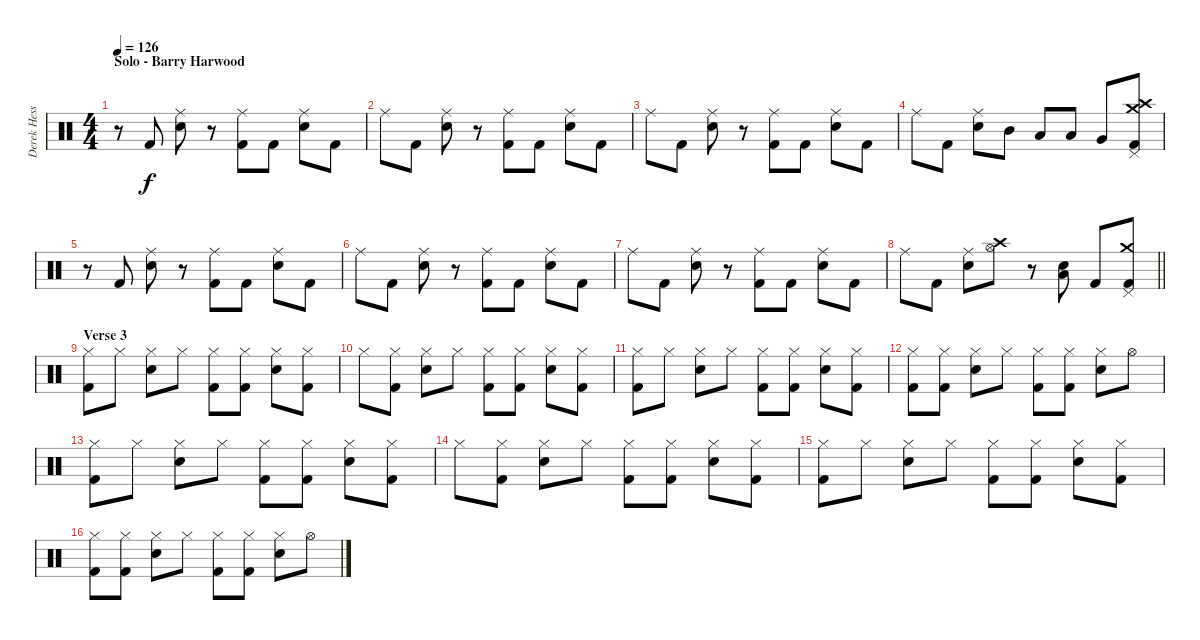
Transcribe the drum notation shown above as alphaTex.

\track ("Derek Hess (Drums and Percussion)" "Derek Hess") {instrument percussion}
\staff {score}
\articulation defaults
\ts (4 4)
\section ("" "Solo - Barry Harwood")
\tempo 126
\clef neutral
\ks c
r.8{dy f} "Kick (hit) 2".8 ("Ride (middle)" "Electric Snare (hit)").8 r.8 ("Ride (middle)" "Kick (hit) 2").8 "Kick (hit) 2".8 ("Ride (middle)" "Electric Snare (hit)").8 "Kick (hit) 2".8 |
"Ride (middle)".8 "Kick (hit) 2".8 ("Ride (middle)" "Electric Snare (hit)").8 r.8 ("Ride (middle)" "Kick (hit) 2").8 "Kick (hit) 2".8 ("Ride (middle)" "Electric Snare (hit)").8 "Kick (hit) 2".8 |
"Ride (middle)".8 "Kick (hit) 2".8 ("Ride (middle)" "Electric Snare (hit)").8 r.8 ("Ride (middle)" "Kick (hit) 2").8 "Kick (hit) 2".8 ("Ride (middle)" "Electric Snare (hit)").8 "Kick (hit) 2".8 |
"Ride (middle)".8 "Kick (hit) 2".8 ("Ride (middle)" "Electric Snare (hit)").8 "Mid Tom (hit)".8 "Low Tom (hit)".8 "Low Tom (hit)".8 "Very Low Tom (hit)".8 ("Crash medium (hit)" "Crash high (hit)" "Pedal Hi-Hat (hit)" "Kick (hit) 2").8 |
r.8 "Kick (hit) 2".8 ("Ride (middle)" "Electric Snare (hit)").8 r.8 ("Ride (middle)" "Kick (hit) 2").8 "Kick (hit) 2".8 ("Ride (middle)" "Electric Snare (hit)").8 "Kick (hit) 2".8 |
"Ride (middle)".8 "Kick (hit) 2".8 ("Ride (middle)" "Electric Snare (hit)").8 r.8 ("Ride (middle)" "Kick (hit) 2").8 "Kick (hit) 2".8 ("Ride (middle)" "Electric Snare (hit)").8 "Kick (hit) 2".8 |
"Ride (middle)".8 "Kick (hit) 2".8 ("Ride (middle)" "Electric Snare (hit)").8 r.8 ("Ride (middle)" "Kick (hit) 2").8 "Kick (hit) 2".8 ("Ride (middle)" "Electric Snare (hit)").8 "Kick (hit) 2".8 |
\barLineRight lightlight "Ride (middle)".8 "Kick (hit) 2".8
("Ride (middle)" "Electric Snare (hit)").8 ("Crash high (hit)" "Hi-Hat (open)").8 r.8 ("Electric Snare (hit)" "Low Tom (hit)").8 "Kick (hit) 2".8 ("Crash medium (hit)" "Pedal Hi-Hat (hit)" "Kick (hit) 2").8 |
\section ("" "Verse 3")
("Hi-Hat (closed)" "Kick (hit) 2").8 "Hi-Hat (closed)".8 ("Electric Snare (hit)" "Hi-Hat (closed)").8 "Hi-Hat (closed)".8 ("Hi-Hat (closed)" "Kick (hit) 2").8 ("Hi-Hat (closed)" "Kick (hit) 2").8 ("Electric Snare (hit)" "Hi-Hat (closed)").8 ("Hi-Hat (closed)" "Kick (hit) 2").8 |
"Hi-Hat (closed)".8 ("Hi-Hat (closed)" "Kick (hit) 2").8 ("Electric Snare (hit)" "Hi-Hat (closed)").8 "Hi-Hat (closed)".8 ("Hi-Hat (closed)" "Kick (hit) 2").8 ("Hi-Hat (closed)" "Kick (hit) 2").8 ("Electric Snare (hit)" "Hi-Hat (closed)").8 ("Hi-Hat (closed)" "Kick (hit) 2").8 |
("Hi-Hat (closed)" "Kick (hit) 2").8 "Hi-Hat (closed)".8 ("Electric Snare (hit)" "Hi-Hat (closed)").8 "Hi-Hat (closed)".8 ("Hi-Hat (closed)" "Kick (hit) 2").8 ("Hi-Hat (closed)" "Kick (hit) 2").8 ("Electric Snare (hit)" "Hi-Hat (closed)").8 ("Hi-Hat (closed)" "Kick (hit) 2").8 |
("Hi-Hat (closed)" "Kick (hit) 2").8 ("Hi-Hat (closed)" "Kick (hit) 2").8 ("Electric Snare (hit)" "Hi-Hat (closed)").8 "Hi-Hat (closed)".8 ("Hi-Hat (closed)" "Kick (hit) 2").8 ("Hi-Hat (closed)" "Kick (hit) 2").8 ("Electric Snare (hit)" "Hi-Hat (closed)").8 "Hi-Hat (open)".8 |
("Hi-Hat (closed)" "Kick (hit) 2").8 "Hi-Hat (closed)".8 ("Electric Snare (hit)" "Hi-Hat (closed)").8 "Hi-Hat (closed)".8 ("Hi-Hat (closed)" "Kick (hit) 2").8 ("Hi-Hat (closed)" "Kick (hit) 2").8 ("Electric Snare (hit)" "Hi-Hat (closed)").8 ("Hi-Hat (closed)" "Kick (hit) 2").8 |
"Hi-Hat (closed)".8 ("Hi-Hat (closed)" "Kick (hit) 2").8 ("Electric Snare (hit)" "Hi-Hat (closed)").8 "Hi-Hat (closed)".8 ("Hi-Hat (closed)" "Kick (hit) 2").8 ("Hi-Hat (closed)" "Kick (hit) 2").8 ("Electric Snare (hit)" "Hi-Hat (closed)").8 ("Hi-Hat (closed)" "Kick (hit) 2").8 |
("Hi-Hat (closed)" "Kick (hit) 2").8 "Hi-Hat (closed)".8 ("Electric Snare (hit)" "Hi-Hat (closed)").8 "Hi-Hat (closed)".8 ("Hi-Hat (closed)" "Kick (hit) 2").8 ("Hi-Hat (closed)" "Kick (hit) 2").8 ("Electric Snare (hit)" "Hi-Hat (closed)").8 ("Hi-Hat (closed)" "Kick (hit) 2").8 |
("Hi-Hat (closed)" "Kick (hit) 2").8 ("Hi-Hat (closed)" "Kick (hit) 2").8 ("Electric Snare (hit)" "Hi-Hat (closed)").8 "Hi-Hat (closed)".8 ("Hi-Hat (closed)" "Kick (hit) 2").8 ("Hi-Hat (closed)" "Kick (hit) 2").8 ("Electric Snare (hit)" "Hi-Hat (closed)").8 "Hi-Hat (open)".8
